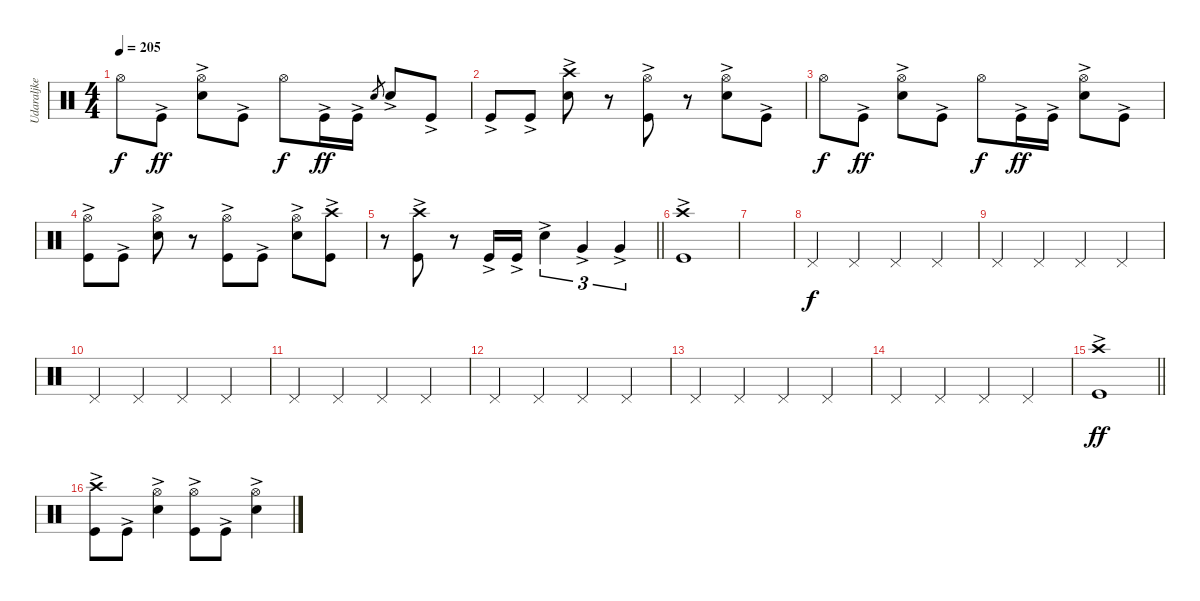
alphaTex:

\track ("Udaraljke" "Udaraljke") {instrument percussion}
\staff {score}
\articulation defaults
\ts (4 4)
\tempo 205
\clef neutral
\ks c "Hi-Hat (open)".8{dy f} "Kick (hit)"{ac}.8{dy ff}
("Hi-Hat (open)" "Snare (hit) 2"{ac}).8 "Kick (hit)"{ac}.8 "Hi-Hat (open)".8{dy f} "Kick (hit)"{ac}.16{dy ff} "Kick (hit)"{ac}.16 "Snare (hit) 2".8{gr} "Snare (hit) 2"{ac}.8 "Kick (hit)"{ac}.8 |
"Kick (hit)"{ac}.8 "Kick (hit)"{ac}.8 ("Crash high (hit)" "Snare (hit) 2"{ac}).8 r.8 ("Kick (hit)"{ac} "Hi-Hat (open)").8 r.8 ("Hi-Hat (open)" "Snare (hit) 2"{ac}).8 "Kick (hit)"{ac}.8 |
"Hi-Hat (open)".8{dy f} "Kick (hit)"{ac}.8{dy ff} ("Hi-Hat (open)" "Snare (hit) 2"{ac}).8 "Kick (hit)"{ac}.8 "Hi-Hat (open)".8{dy f} "Kick (hit)"{ac}.16{dy ff} "Kick (hit)"{ac}.16 ("Snare (hit) 2"{ac} "Hi-Hat (open)").8 "Kick (hit)"{ac}.8 |
("Kick (hit)"{ac} "Hi-Hat (open)").8 "Kick (hit)"{ac}.8 ("Hi-Hat (open)" "Snare (hit) 2"{ac}).8 r.8 ("Kick (hit)"{ac} "Hi-Hat (open)").8 "Kick (hit)"{ac}.8 ("Hi-Hat (open)" "Snare (hit) 2"{ac}).8 ("Kick (hit)"{ac} "Crash high (hit)").8 |
\barLineRight lightlight
r.8 ("Kick (hit)"{ac} "Crash high (hit)").8 r.8 "Kick (hit)"{ac}.16 "Kick (hit)"{ac}.16 "Snare (hit) 2"{ac}.4{tu (3 2)} "Very Low Tom (hit)"{ac}.4{tu (3 2)} "Very Low Tom (hit)"{ac}.4{tu (3 2)} |
\section ("" "")
("Kick (hit)"{ac} "Crash high (hit)").1 |
|
"Pedal Hi-Hat (hit)".4{dy f} "Pedal Hi-Hat (hit)".4 "Pedal Hi-Hat (hit)".4 "Pedal Hi-Hat (hit)".4 |
"Pedal Hi-Hat (hit)".4 "Pedal Hi-Hat (hit)".4 "Pedal Hi-Hat (hit)".4 "Pedal Hi-Hat (hit)".4 |
"Pedal Hi-Hat (hit)".4 "Pedal Hi-Hat (hit)".4 "Pedal Hi-Hat (hit)".4 "Pedal Hi-Hat (hit)".4 |
"Pedal Hi-Hat (hit)".4 "Pedal Hi-Hat (hit)".4 "Pedal Hi-Hat (hit)".4 "Pedal Hi-Hat (hit)".4 |
"Pedal Hi-Hat (hit)".4 "Pedal Hi-Hat (hit)".4 "Pedal Hi-Hat (hit)".4 "Pedal Hi-Hat (hit)".4 |
"Pedal Hi-Hat (hit)".4 "Pedal Hi-Hat (hit)".4 "Pedal Hi-Hat (hit)".4 "Pedal Hi-Hat (hit)".4 |
"Pedal Hi-Hat (hit)".4 "Pedal Hi-Hat (hit)".4 "Pedal Hi-Hat (hit)".4 "Pedal Hi-Hat (hit)".4 |
\barLineRight lightlight
("Kick (hit)"{ac} "Crash high (hit)").1{dy ff} |
\section ("" "")
("Kick (hit)"{ac} "Crash high (hit)").8 "Kick (hit)"{ac}.8 ("Snare (hit) 2"{ac} "Hi-Hat (open)").4 ("Kick (hit)"{ac} "Hi-Hat (open)").8 "Kick (hit)"{ac}.8 ("Snare (hit) 2"{ac} "Hi-Hat (open)").4
